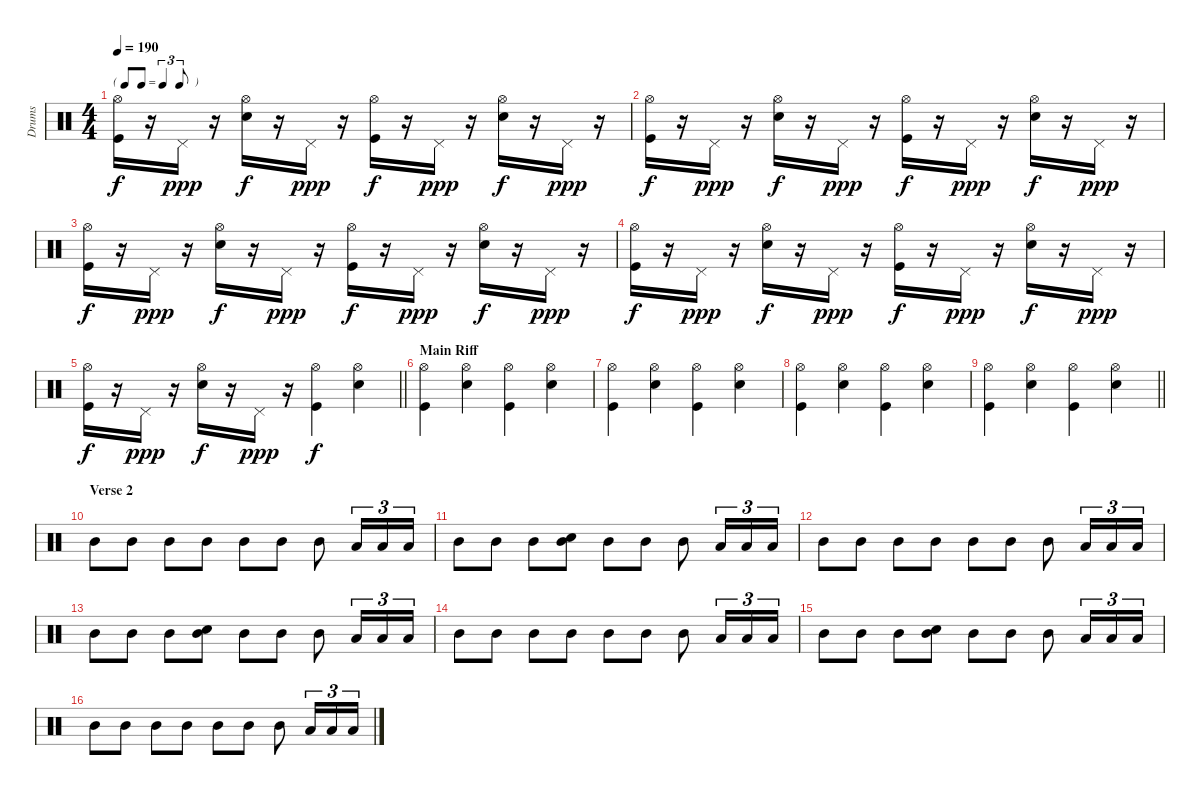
\track ("Drums" "Drums") {instrument percussion}
\staff {score}
\articulation defaults
\ts (4 4)
\tf triplet8th
\tempo 190
\clef neutral
\ks c
("Hi-Hat (open)" "Kick (hit)").16{dy f} r.16 "Pedal Hi-Hat (hit)".16{dy ppp} r.16 ("Hi-Hat (open)" "Electric Snare (hit)").16{dy f} r.16 "Pedal Hi-Hat (hit)".16{dy ppp} r.16 ("Hi-Hat (open)" "Kick (hit)").16{dy f} r.16 "Pedal Hi-Hat (hit)".16{dy ppp} r.16 ("Hi-Hat (open)" "Electric Snare (hit)").16{dy f} r.16 "Pedal Hi-Hat (hit)".16{dy ppp} r.16 |
("Hi-Hat (open)" "Kick (hit)").16{dy f} r.16 "Pedal Hi-Hat (hit)".16{dy ppp} r.16 ("Hi-Hat (open)" "Electric Snare (hit)").16{dy f} r.16 "Pedal Hi-Hat (hit)".16{dy ppp} r.16 ("Hi-Hat (open)" "Kick (hit)").16{dy f} r.16 "Pedal Hi-Hat (hit)".16{dy ppp} r.16 ("Hi-Hat (open)" "Electric Snare (hit)").16{dy f} r.16 "Pedal Hi-Hat (hit)".16{dy ppp} r.16 |
("Hi-Hat (open)" "Kick (hit)").16{dy f} r.16 "Pedal Hi-Hat (hit)".16{dy ppp} r.16 ("Hi-Hat (open)" "Electric Snare (hit)").16{dy f} r.16 "Pedal Hi-Hat (hit)".16{dy ppp} r.16 ("Hi-Hat (open)" "Kick (hit)").16{dy f} r.16 "Pedal Hi-Hat (hit)".16{dy ppp} r.16 ("Hi-Hat (open)" "Electric Snare (hit)").16{dy f} r.16 "Pedal Hi-Hat (hit)".16{dy ppp} r.16 |
("Hi-Hat (open)" "Kick (hit)").16{dy f} r.16 "Pedal Hi-Hat (hit)".16{dy ppp} r.16 ("Hi-Hat (open)" "Electric Snare (hit)").16{dy f} r.16 "Pedal Hi-Hat (hit)".16{dy ppp} r.16 ("Hi-Hat (open)" "Kick (hit)").16{dy f} r.16 "Pedal Hi-Hat (hit)".16{dy ppp} r.16 ("Hi-Hat (open)" "Electric Snare (hit)").16{dy f} r.16 "Pedal Hi-Hat (hit)".16{dy ppp} r.16 |
\barLineRight lightlight
("Hi-Hat (open)" "Kick (hit)").16{dy f} r.16 "Pedal Hi-Hat (hit)".16{dy ppp} r.16 ("Hi-Hat (open)" "Electric Snare (hit)").16{dy f} r.16 "Pedal Hi-Hat (hit)".16{dy ppp} r.16 ("Hi-Hat (open)" "Kick (hit)").4{dy f} ("Hi-Hat (open)" "Electric Snare (hit)").4 |
\section ("" "Main Riff")
("Hi-Hat (open)" "Kick (hit)").4 ("Hi-Hat (open)" "Electric Snare (hit)").4 ("Hi-Hat (open)" "Kick (hit)").4 ("Hi-Hat (open)" "Electric Snare (hit)").4 |
("Hi-Hat (open)" "Kick (hit)").4 ("Hi-Hat (open)" "Electric Snare (hit)").4 ("Hi-Hat (open)" "Kick (hit)").4 ("Hi-Hat (open)" "Electric Snare (hit)").4 |
("Hi-Hat (open)" "Kick (hit)").4 ("Hi-Hat (open)" "Electric Snare (hit)").4 ("Hi-Hat (open)" "Kick (hit)").4 ("Hi-Hat (open)" "Electric Snare (hit)").4 |
\barLineRight lightlight
("Hi-Hat (open)" "Kick (hit)").4 ("Hi-Hat (open)" "Electric Snare (hit)").4 ("Hi-Hat (open)" "Kick (hit)").4 ("Hi-Hat (open)" "Electric Snare (hit)").4 |
\section ("" "Verse 2")
"Mid Tom (hit)".8 "Mid Tom (hit)".8 "Mid Tom (hit)".8 "Mid Tom (hit)".8 "Mid Tom (hit)".8 "Mid Tom (hit)".8 "Mid Tom (hit)".8 "Low Tom (hit)".16{tu (3 2)} "Low Tom (hit)".16{tu (3 2)} "Low Tom (hit)".16{tu (3 2)} |
"Mid Tom (hit)".8 "Mid Tom (hit)".8 "Mid Tom (hit)".8 ("Snare (hit) 2" "Mid Tom (hit)").8 "Mid Tom (hit)".8 "Mid Tom (hit)".8 "Mid Tom (hit)".8 "Low Tom (hit)".16{tu (3 2)} "Low Tom (hit)".16{tu (3 2)} "Low Tom (hit)".16{tu (3 2)} |
"Mid Tom (hit)".8 "Mid Tom (hit)".8 "Mid Tom (hit)".8 "Mid Tom (hit)".8 "Mid Tom (hit)".8 "Mid Tom (hit)".8 "Mid Tom (hit)".8 "Low Tom (hit)".16{tu (3 2)} "Low Tom (hit)".16{tu (3 2)} "Low Tom (hit)".16{tu (3 2)} |
"Mid Tom (hit)".8 "Mid Tom (hit)".8 "Mid Tom (hit)".8 ("Snare (hit) 2" "Mid Tom (hit)").8 "Mid Tom (hit)".8 "Mid Tom (hit)".8 "Mid Tom (hit)".8 "Low Tom (hit)".16{tu (3 2)} "Low Tom (hit)".16{tu (3 2)} "Low Tom (hit)".16{tu (3 2)} |
"Mid Tom (hit)".8 "Mid Tom (hit)".8 "Mid Tom (hit)".8 "Mid Tom (hit)".8 "Mid Tom (hit)".8 "Mid Tom (hit)".8 "Mid Tom (hit)".8 "Low Tom (hit)".16{tu (3 2)} "Low Tom (hit)".16{tu (3 2)} "Low Tom (hit)".16{tu (3 2)} |
"Mid Tom (hit)".8 "Mid Tom (hit)".8 "Mid Tom (hit)".8 ("Snare (hit) 2" "Mid Tom (hit)").8 "Mid Tom (hit)".8 "Mid Tom (hit)".8 "Mid Tom (hit)".8 "Low Tom (hit)".16{tu (3 2)} "Low Tom (hit)".16{tu (3 2)} "Low Tom (hit)".16{tu (3 2)} |
"Mid Tom (hit)".8 "Mid Tom (hit)".8 "Mid Tom (hit)".8 "Mid Tom (hit)".8 "Mid Tom (hit)".8 "Mid Tom (hit)".8 "Mid Tom (hit)".8 "Low Tom (hit)".16{tu (3 2)} "Low Tom (hit)".16{tu (3 2)} "Low Tom (hit)".16{tu (3 2)}
